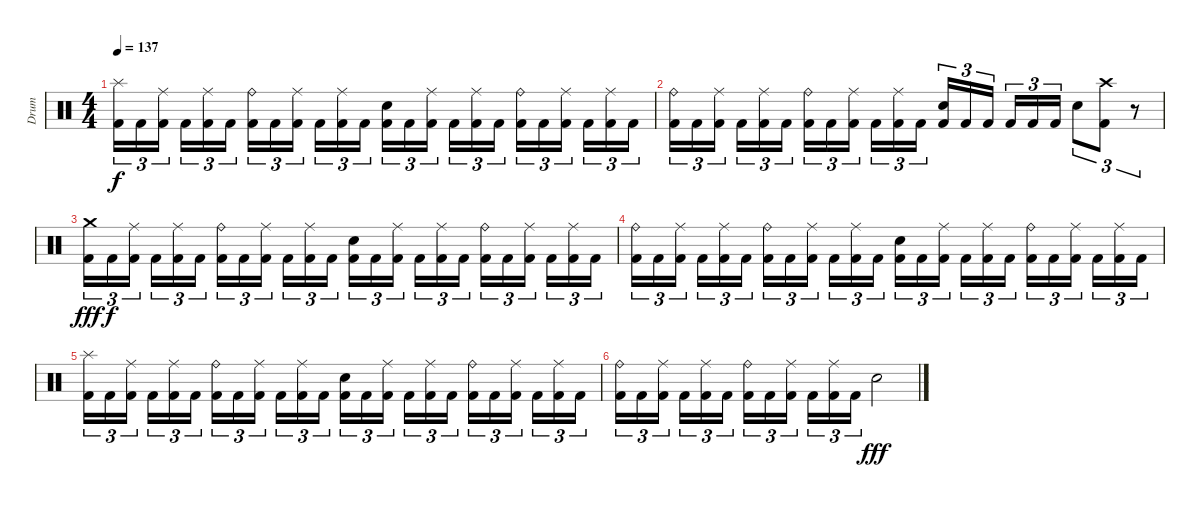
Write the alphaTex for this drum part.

\track ("Drum" "Drum") {instrument percussion}
\staff {score}
\articulation defaults
\ts (4 4)
\tempo 137
\clef neutral
\ks c
("Splash (hit)" "Kick (hit) 2").16{tu (3 2) dy f} "Kick (hit) 2".16{tu (3 2)} ("Ride (middle)" "Kick (hit) 2").16{tu (3 2) beam splitsecondary} "Kick (hit) 2".16{tu (3 2)} ("Ride (middle)" "Kick (hit) 2").16{tu (3 2)} "Kick (hit) 2".16{tu (3 2)} ("Ride (bell)" "Kick (hit) 2").16{tu (3 2)} "Kick (hit) 2".16{tu (3 2)} ("Ride (middle)" "Kick (hit) 2").16{tu (3 2) beam splitsecondary} "Kick (hit) 2".16{tu (3 2)} ("Ride (middle)" "Kick (hit) 2").16{tu (3 2)} "Kick (hit) 2".16{tu (3 2)} ("Electric Snare (hit)" "Kick (hit) 2").16{tu (3 2)} "Kick (hit) 2".16{tu (3 2)} ("Ride (middle)" "Kick (hit) 2").16{tu (3 2) beam splitsecondary} "Kick (hit) 2".16{tu (3 2)} ("Ride (middle)" "Kick (hit) 2").16{tu (3 2)} "Kick (hit) 2".16{tu (3 2)} ("Ride (bell)" "Kick (hit) 2").16{tu (3 2)} "Kick (hit) 2".16{tu (3 2)} ("Ride (middle)" "Kick (hit) 2").16{tu (3 2) beam splitsecondary} "Kick (hit) 2".16{tu (3 2)} ("Ride (middle)" "Kick (hit) 2").16{tu (3 2)} "Kick (hit) 2".16{tu (3 2)} |
("Ride (bell)" "Kick (hit) 2").16{tu (3 2)} "Kick (hit) 2".16{tu (3 2)} ("Ride (middle)" "Kick (hit) 2").16{tu (3 2) beam splitsecondary} "Kick (hit) 2".16{tu (3 2)} ("Ride (middle)" "Kick (hit) 2").16{tu (3 2)} "Kick (hit) 2".16{tu (3 2)} ("Ride (bell)" "Kick (hit) 2").16{tu (3 2)} "Kick (hit) 2".16{tu (3 2)} ("Ride (middle)" "Kick (hit) 2").16{tu (3 2) beam splitsecondary} "Kick (hit) 2".16{tu (3 2)} ("Ride (middle)" "Kick (hit) 2").16{tu (3 2)} "Kick (hit) 2".16{tu (3 2)} ("Electric Snare (hit)" "Kick (hit) 2").16{tu (3 2)} "Kick (hit) 2".16{tu (3 2)} "Kick (hit) 2".16{tu (3 2) beam splitsecondary} "Kick (hit) 2".16{tu (3 2)} "Kick (hit) 2".16{tu (3 2)} "Kick (hit) 2".16{tu (3 2)} "Electric Snare (hit)".8{tu (3 2)} ("Crash high (hit)" "Kick (hit) 2").8{tu (3 2)} r.8{tu (3 2)} |
("Crash medium (hit)" "Kick (hit) 2").16{tu (3 2) dy fff} "Kick (hit) 2".16{tu (3 2) dy f} ("Ride (middle)" "Kick (hit) 2").16{tu (3 2) beam splitsecondary} "Kick (hit) 2".16{tu (3 2)} ("Ride (middle)" "Kick (hit) 2").16{tu (3 2)} "Kick (hit) 2".16{tu (3 2)} ("Ride (bell)" "Kick (hit) 2").16{tu (3 2)} "Kick (hit) 2".16{tu (3 2)} ("Ride (middle)" "Kick (hit) 2").16{tu (3 2) beam splitsecondary} "Kick (hit) 2".16{tu (3 2)} ("Ride (middle)" "Kick (hit) 2").16{tu (3 2)} "Kick (hit) 2".16{tu (3 2)} ("Electric Snare (hit)" "Kick (hit) 2").16{tu (3 2)} "Kick (hit) 2".16{tu (3 2)} ("Ride (middle)" "Kick (hit) 2").16{tu (3 2) beam splitsecondary} "Kick (hit) 2".16{tu (3 2)} ("Ride (middle)" "Kick (hit) 2").16{tu (3 2)} "Kick (hit) 2".16{tu (3 2)} ("Ride (bell)" "Kick (hit) 2").16{tu (3 2)} "Kick (hit) 2".16{tu (3 2)} ("Ride (middle)" "Kick (hit) 2").16{tu (3 2) beam splitsecondary} "Kick (hit) 2".16{tu (3 2)} ("Ride (middle)" "Kick (hit) 2").16{tu (3 2)} "Kick (hit) 2".16{tu (3 2)} |
("Ride (bell)" "Kick (hit) 2").16{tu (3 2)} "Kick (hit) 2".16{tu (3 2)} ("Ride (middle)" "Kick (hit) 2").16{tu (3 2) beam splitsecondary} "Kick (hit) 2".16{tu (3 2)} ("Ride (middle)" "Kick (hit) 2").16{tu (3 2)} "Kick (hit) 2".16{tu (3 2)} ("Ride (bell)" "Kick (hit) 2").16{tu (3 2)} "Kick (hit) 2".16{tu (3 2)} ("Ride (middle)" "Kick (hit) 2").16{tu (3 2) beam splitsecondary} "Kick (hit) 2".16{tu (3 2)} ("Ride (middle)" "Kick (hit) 2").16{tu (3 2)} "Kick (hit) 2".16{tu (3 2)} ("Electric Snare (hit)" "Kick (hit) 2").16{tu (3 2)} "Kick (hit) 2".16{tu (3 2)} ("Ride (middle)" "Kick (hit) 2").16{tu (3 2) beam splitsecondary} "Kick (hit) 2".16{tu (3 2)} ("Ride (middle)" "Kick (hit) 2").16{tu (3 2)} "Kick (hit) 2".16{tu (3 2)} ("Ride (bell)" "Kick (hit) 2").16{tu (3 2)} "Kick (hit) 2".16{tu (3 2)} ("Ride (middle)" "Kick (hit) 2").16{tu (3 2) beam splitsecondary} "Kick (hit) 2".16{tu (3 2)} ("Ride (middle)" "Kick (hit) 2").16{tu (3 2)} "Kick (hit) 2".16{tu (3 2)} |
("Splash (hit)" "Kick (hit) 2").16{tu (3 2)} "Kick (hit) 2".16{tu (3 2)} ("Ride (middle)" "Kick (hit) 2").16{tu (3 2) beam splitsecondary} "Kick (hit) 2".16{tu (3 2)} ("Ride (middle)" "Kick (hit) 2").16{tu (3 2)} "Kick (hit) 2".16{tu (3 2)} ("Ride (bell)" "Kick (hit) 2").16{tu (3 2)} "Kick (hit) 2".16{tu (3 2)} ("Ride (middle)" "Kick (hit) 2").16{tu (3 2) beam splitsecondary} "Kick (hit) 2".16{tu (3 2)} ("Ride (middle)" "Kick (hit) 2").16{tu (3 2)} "Kick (hit) 2".16{tu (3 2)} ("Electric Snare (hit)" "Kick (hit) 2").16{tu (3 2)} "Kick (hit) 2".16{tu (3 2)} ("Ride (middle)" "Kick (hit) 2").16{tu (3 2) beam splitsecondary} "Kick (hit) 2".16{tu (3 2)} ("Ride (middle)" "Kick (hit) 2").16{tu (3 2)} "Kick (hit) 2".16{tu (3 2)} ("Ride (bell)" "Kick (hit) 2").16{tu (3 2)} "Kick (hit) 2".16{tu (3 2)} ("Ride (middle)" "Kick (hit) 2").16{tu (3 2) beam splitsecondary} "Kick (hit) 2".16{tu (3 2)} ("Ride (middle)" "Kick (hit) 2").16{tu (3 2)} "Kick (hit) 2".16{tu (3 2)} |
("Ride (bell)" "Kick (hit) 2").16{tu (3 2)} "Kick (hit) 2".16{tu (3 2)} ("Ride (middle)" "Kick (hit) 2").16{tu (3 2) beam splitsecondary} "Kick (hit) 2".16{tu (3 2)} ("Ride (middle)" "Kick (hit) 2").16{tu (3 2)} "Kick (hit) 2".16{tu (3 2)} ("Ride (bell)" "Kick (hit) 2").16{tu (3 2)} "Kick (hit) 2".16{tu (3 2)} ("Ride (middle)" "Kick (hit) 2").16{tu (3 2) beam splitsecondary} "Kick (hit) 2".16{tu (3 2)} ("Ride (middle)" "Kick (hit) 2").16{tu (3 2)} "Kick (hit) 2".16{tu (3 2)} "Electric Snare (hit)".2{dy fff}
